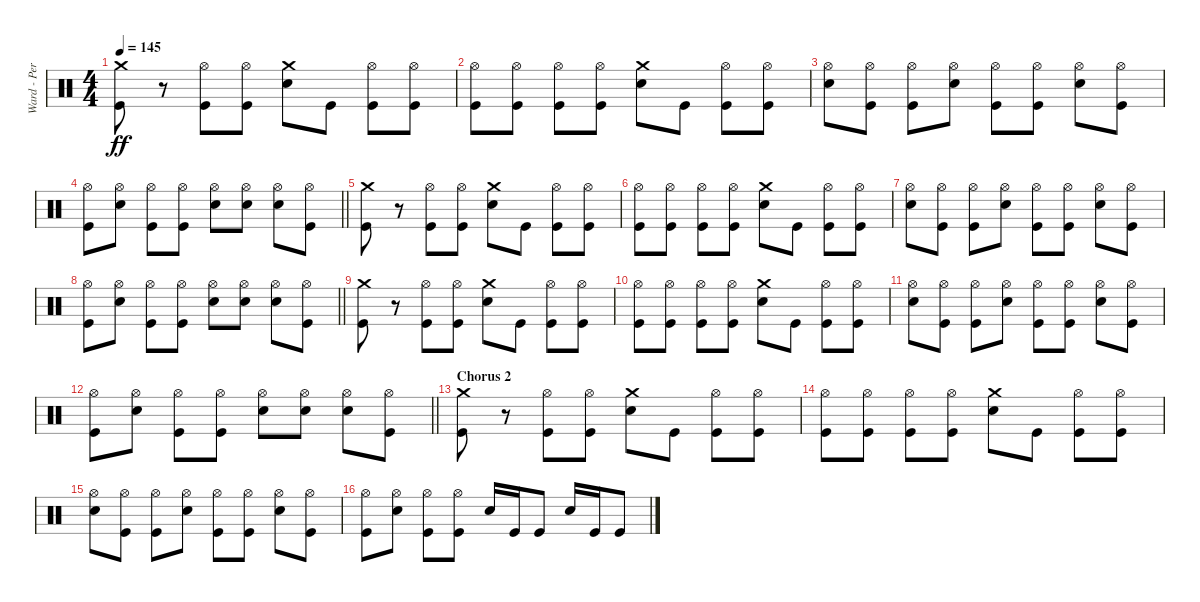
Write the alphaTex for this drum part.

\track ("Ward - Percussion" "Ward - Per") {instrument percussion}
\staff {score}
\articulation defaults
\ts (4 4)
\tempo 145
\clef neutral
\ks c
("Kick (hit)" "Crash medium (hit)").8{dy ff} r.8 ("Hi-Hat (open)" "Kick (hit)").8 ("Hi-Hat (open)" "Kick (hit)").8 ("Snare (hit) 2" "Crash medium (hit)").8 "Kick (hit)".8 ("Hi-Hat (open)" "Kick (hit)").8 ("Hi-Hat (open)" "Kick (hit)").8 |
("Hi-Hat (open)" "Kick (hit)").8 ("Hi-Hat (open)" "Kick (hit)").8 ("Kick (hit)" "Hi-Hat (open)").8 ("Hi-Hat (open)" "Kick (hit)").8 ("Snare (hit) 2" "Crash medium (hit)").8 "Kick (hit)".8 ("Hi-Hat (open)" "Kick (hit)").8 ("Hi-Hat (open)" "Kick (hit)").8 |
("Hi-Hat (open)" "Snare (hit) 2").8 ("Hi-Hat (open)" "Kick (hit)").8 ("Hi-Hat (open)" "Kick (hit)").8 ("Snare (hit) 2" "Hi-Hat (open)").8 ("Hi-Hat (open)" "Kick (hit)").8 ("Hi-Hat (open)" "Kick (hit)").8 ("Snare (hit) 2" "Hi-Hat (open)").8 ("Hi-Hat (open)" "Kick (hit)").8 |
\barLineRight lightlight
("Hi-Hat (open)" "Kick (hit)").8 ("Snare (hit) 2" "Hi-Hat (open)").8 ("Hi-Hat (open)" "Kick (hit)").8 ("Hi-Hat (open)" "Kick (hit)").8 ("Hi-Hat (open)" "Snare (hit) 2").8 ("Hi-Hat (open)" "Snare (hit) 2").8 ("Hi-Hat (open)" "Snare (hit) 2").8 ("Hi-Hat (open)" "Kick (hit)").8 |
("Kick (hit)" "Crash medium (hit)").8 r.8 ("Hi-Hat (open)" "Kick (hit)").8 ("Hi-Hat (open)" "Kick (hit)").8 ("Snare (hit) 2" "Crash medium (hit)").8 "Kick (hit)".8 ("Hi-Hat (open)" "Kick (hit)").8 ("Hi-Hat (open)" "Kick (hit)").8 |
("Hi-Hat (open)" "Kick (hit)").8 ("Hi-Hat (open)" "Kick (hit)").8 ("Kick (hit)" "Hi-Hat (open)").8 ("Hi-Hat (open)" "Kick (hit)").8 ("Snare (hit) 2" "Crash medium (hit)").8 "Kick (hit)".8 ("Hi-Hat (open)" "Kick (hit)").8 ("Hi-Hat (open)" "Kick (hit)").8 |
("Hi-Hat (open)" "Snare (hit) 2").8 ("Hi-Hat (open)" "Kick (hit)").8 ("Hi-Hat (open)" "Kick (hit)").8 ("Snare (hit) 2" "Hi-Hat (open)").8 ("Hi-Hat (open)" "Kick (hit)").8 ("Hi-Hat (open)" "Kick (hit)").8 ("Snare (hit) 2" "Hi-Hat (open)").8 ("Hi-Hat (open)" "Kick (hit)").8 |
\barLineRight lightlight
("Hi-Hat (open)" "Kick (hit)").8 ("Snare (hit) 2" "Hi-Hat (open)").8 ("Hi-Hat (open)" "Kick (hit)").8 ("Hi-Hat (open)" "Kick (hit)").8 ("Hi-Hat (open)" "Snare (hit) 2").8 ("Hi-Hat (open)" "Snare (hit) 2").8 ("Hi-Hat (open)" "Snare (hit) 2").8 ("Hi-Hat (open)" "Kick (hit)").8 |
("Kick (hit)" "Crash medium (hit)").8 r.8 ("Hi-Hat (open)" "Kick (hit)").8 ("Hi-Hat (open)" "Kick (hit)").8 ("Snare (hit) 2" "Crash medium (hit)").8 "Kick (hit)".8 ("Hi-Hat (open)" "Kick (hit)").8 ("Hi-Hat (open)" "Kick (hit)").8 |
("Hi-Hat (open)" "Kick (hit)").8 ("Hi-Hat (open)" "Kick (hit)").8 ("Kick (hit)" "Hi-Hat (open)").8 ("Hi-Hat (open)" "Kick (hit)").8 ("Snare (hit) 2" "Crash medium (hit)").8 "Kick (hit)".8 ("Hi-Hat (open)" "Kick (hit)").8 ("Hi-Hat (open)" "Kick (hit)").8 |
("Hi-Hat (open)" "Snare (hit) 2").8 ("Hi-Hat (open)" "Kick (hit)").8 ("Hi-Hat (open)" "Kick (hit)").8 ("Snare (hit) 2" "Hi-Hat (open)").8 ("Hi-Hat (open)" "Kick (hit)").8 ("Hi-Hat (open)" "Kick (hit)").8 ("Snare (hit) 2" "Hi-Hat (open)").8 ("Hi-Hat (open)" "Kick (hit)").8 |
\barLineRight lightlight
("Hi-Hat (open)" "Kick (hit)").8 ("Snare (hit) 2" "Hi-Hat (open)").8 ("Hi-Hat (open)" "Kick (hit)").8 ("Hi-Hat (open)" "Kick (hit)").8 ("Hi-Hat (open)" "Snare (hit) 2").8 ("Hi-Hat (open)" "Snare (hit) 2").8 ("Hi-Hat (open)" "Snare (hit) 2").8 ("Hi-Hat (open)" "Kick (hit)").8 |
\section ("" "Chorus 2")
("Kick (hit)" "Crash medium (hit)").8 r.8 ("Hi-Hat (open)" "Kick (hit)").8 ("Hi-Hat (open)" "Kick (hit)").8 ("Snare (hit) 2" "Crash medium (hit)").8 "Kick (hit)".8 ("Hi-Hat (open)" "Kick (hit)").8 ("Hi-Hat (open)" "Kick (hit)").8 |
("Hi-Hat (open)" "Kick (hit)").8 ("Hi-Hat (open)" "Kick (hit)").8 ("Kick (hit)" "Hi-Hat (open)").8 ("Hi-Hat (open)" "Kick (hit)").8 ("Snare (hit) 2" "Crash medium (hit)").8 "Kick (hit)".8 ("Hi-Hat (open)" "Kick (hit)").8 ("Hi-Hat (open)" "Kick (hit)").8 |
("Hi-Hat (open)" "Snare (hit) 2").8 ("Hi-Hat (open)" "Kick (hit)").8 ("Hi-Hat (open)" "Kick (hit)").8 ("Snare (hit) 2" "Hi-Hat (open)").8 ("Hi-Hat (open)" "Kick (hit)").8 ("Hi-Hat (open)" "Kick (hit)").8 ("Snare (hit) 2" "Hi-Hat (open)").8 ("Hi-Hat (open)" "Kick (hit)").8 |
("Hi-Hat (open)" "Kick (hit)").8 ("Snare (hit) 2" "Hi-Hat (open)").8 ("Hi-Hat (open)" "Kick (hit)").8 ("Hi-Hat (open)" "Kick (hit)").8 "Snare (hit) 2".16 "Kick (hit)".16 "Kick (hit)".8 "Snare (hit) 2".16 "Kick (hit)".16 "Kick (hit)".8
